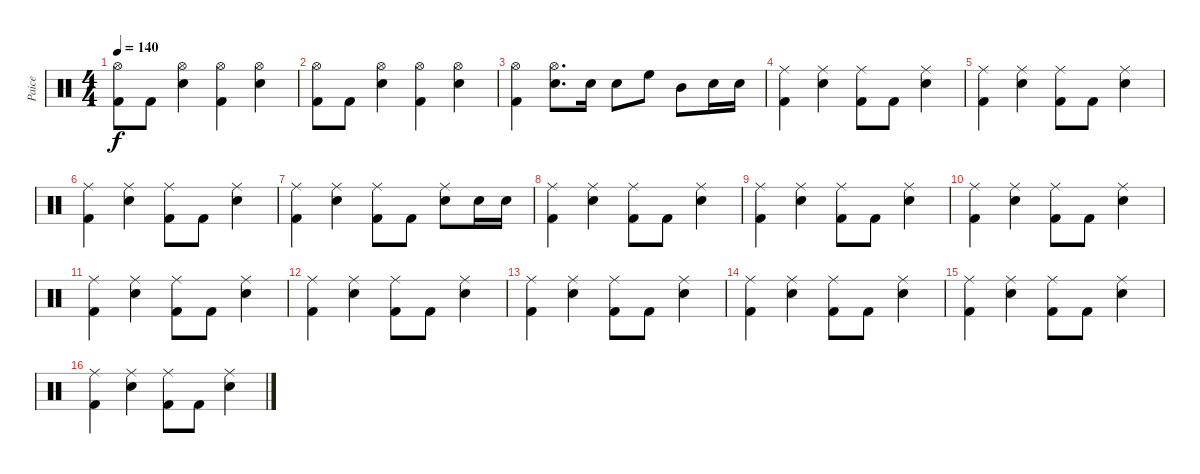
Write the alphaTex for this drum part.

\track ("Paice" "Paice") {instrument percussion}
\staff {score}
\articulation defaults
\ts (4 4)
\tempo 140
\clef neutral
\ks c
("Hi-Hat (open)" "Kick (hit) 2").8{dy f} "Kick (hit) 2".8 ("Hi-Hat (open)" "Electric Snare (hit)").4 ("Hi-Hat (open)" "Kick (hit) 2").4 ("Hi-Hat (open)" "Electric Snare (hit)").4 |
("Hi-Hat (open)" "Kick (hit) 2").8 "Kick (hit) 2".8 ("Hi-Hat (open)" "Electric Snare (hit)").4 ("Hi-Hat (open)" "Kick (hit) 2").4 ("Hi-Hat (open)" "Electric Snare (hit)").4 |
("Hi-Hat (open)" "Kick (hit) 2").4 ("Hi-Hat (open)" "Electric Snare (hit)").8{d} "Electric Snare (hit)".16 "Electric Snare (hit)".8 "High Floor Tom (hit)".8 "Mid Tom (hit)".8 "Electric Snare (hit)".16 "Electric Snare (hit)".16 |
("Ride (middle)" "Kick (hit) 2").4 ("Ride (middle)" "Electric Snare (hit)").4 ("Ride (middle)" "Kick (hit) 2").8 "Kick (hit) 2".8 ("Ride (middle)" "Electric Snare (hit)").4 |
("Ride (middle)" "Kick (hit) 2").4 ("Ride (middle)" "Electric Snare (hit)").4 ("Ride (middle)" "Kick (hit) 2").8 "Kick (hit) 2".8 ("Ride (middle)" "Electric Snare (hit)").4 |
("Ride (middle)" "Kick (hit) 2").4 ("Ride (middle)" "Electric Snare (hit)").4 ("Ride (middle)" "Kick (hit) 2").8 "Kick (hit) 2".8 ("Ride (middle)" "Electric Snare (hit)").4 |
("Ride (middle)" "Kick (hit) 2").4 ("Ride (middle)" "Electric Snare (hit)").4 ("Ride (middle)" "Kick (hit) 2").8 "Kick (hit) 2".8 ("Ride (middle)" "Electric Snare (hit)").8 "Electric Snare (hit)".16 "Electric Snare (hit)".16 |
("Ride (middle)" "Kick (hit) 2").4 ("Ride (middle)" "Electric Snare (hit)").4 ("Ride (middle)" "Kick (hit) 2").8 "Kick (hit) 2".8 ("Ride (middle)" "Electric Snare (hit)").4 |
("Ride (middle)" "Kick (hit) 2").4 ("Ride (middle)" "Electric Snare (hit)").4 ("Ride (middle)" "Kick (hit) 2").8 "Kick (hit) 2".8 ("Ride (middle)" "Electric Snare (hit)").4 |
("Ride (middle)" "Kick (hit) 2").4 ("Ride (middle)" "Electric Snare (hit)").4 ("Ride (middle)" "Kick (hit) 2").8 "Kick (hit) 2".8 ("Ride (middle)" "Electric Snare (hit)").4 |
("Ride (middle)" "Kick (hit) 2").4 ("Ride (middle)" "Electric Snare (hit)").4 ("Ride (middle)" "Kick (hit) 2").8 "Kick (hit) 2".8 ("Ride (middle)" "Electric Snare (hit)").4 |
("Ride (middle)" "Kick (hit) 2").4 ("Ride (middle)" "Electric Snare (hit)").4 ("Ride (middle)" "Kick (hit) 2").8 "Kick (hit) 2".8 ("Ride (middle)" "Electric Snare (hit)").4 |
("Ride (middle)" "Kick (hit) 2").4 ("Ride (middle)" "Electric Snare (hit)").4 ("Ride (middle)" "Kick (hit) 2").8 "Kick (hit) 2".8 ("Ride (middle)" "Electric Snare (hit)").4 |
("Ride (middle)" "Kick (hit) 2").4 ("Ride (middle)" "Electric Snare (hit)").4 ("Ride (middle)" "Kick (hit) 2").8 "Kick (hit) 2".8 ("Ride (middle)" "Electric Snare (hit)").4 |
("Ride (middle)" "Kick (hit) 2").4 ("Ride (middle)" "Electric Snare (hit)").4 ("Ride (middle)" "Kick (hit) 2").8 "Kick (hit) 2".8 ("Ride (middle)" "Electric Snare (hit)").4 |
("Ride (middle)" "Kick (hit) 2").4 ("Ride (middle)" "Electric Snare (hit)").4 ("Ride (middle)" "Kick (hit) 2").8 "Kick (hit) 2".8 ("Ride (middle)" "Electric Snare (hit)").4
